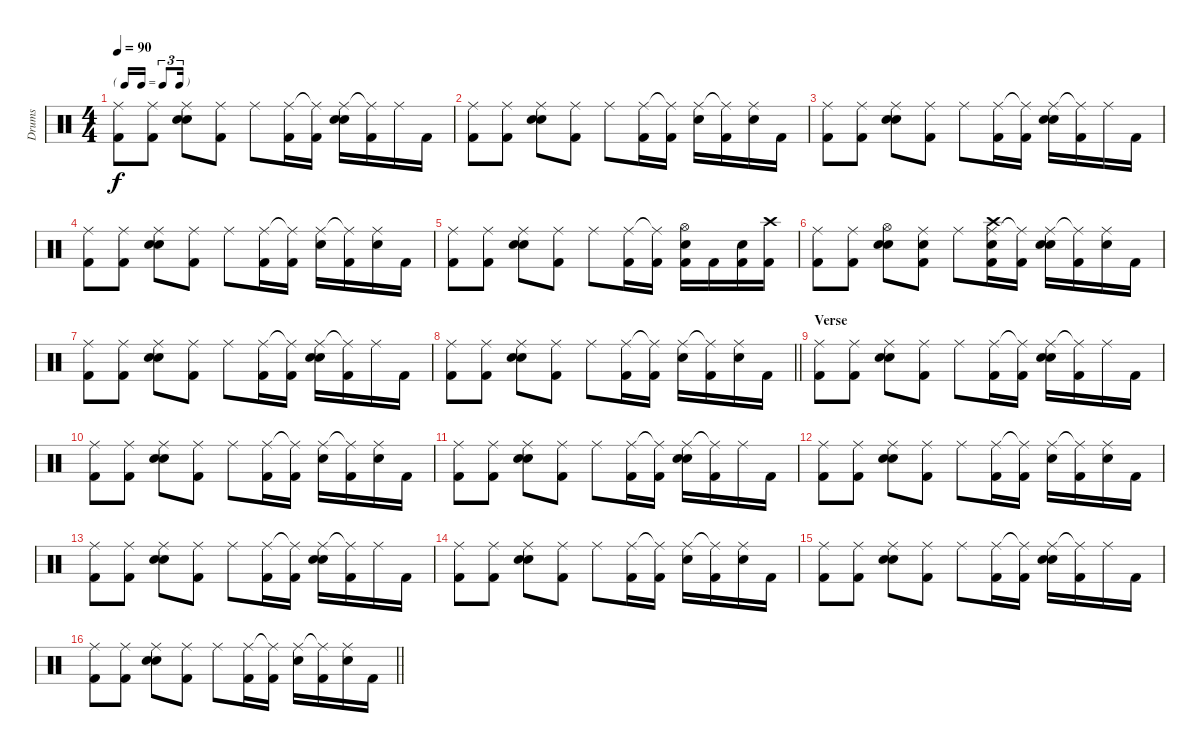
\track ("Drums" "Drums") {instrument percussion}
\staff {score}
\articulation defaults
\ts (4 4)
\tf triplet16th
\tempo 90
\clef neutral
\ks c
("Ride (middle)" "Kick (hit) 2").8{dy f} ("Ride (middle)" "Kick (hit) 2").8 ("Ride (middle)" "Hand Clap (hit)" "Snare (hit) 2").8 ("Ride (middle)" "Kick (hit) 2").8 "Ride (middle)".8 ("Ride (middle)" "Kick (hit) 2").16 ("Ride (middle)"{t} "Kick (hit) 2").16 ("Ride (middle)" "Hand Clap (hit)" "Snare (hit) 2").16 ("Ride (middle)"{t} "Kick (hit) 2").16 "Ride (middle)".16 "Kick (hit) 2".16 |
("Ride (middle)" "Kick (hit) 2").8 ("Ride (middle)" "Kick (hit) 2").8 ("Ride (middle)" "Hand Clap (hit)" "Snare (hit) 2").8 ("Ride (middle)" "Kick (hit) 2").8 "Ride (middle)".8 ("Ride (middle)" "Kick (hit) 2").16 ("Ride (middle)"{t} "Kick (hit) 2").16 ("Ride (middle)" "Hand Clap (hit)").16 ("Ride (middle)"{t} "Kick (hit) 2").16 ("Ride (middle)" "Snare (hit) 2").16 "Kick (hit) 2".16 |
("Ride (middle)" "Kick (hit) 2").8 ("Ride (middle)" "Kick (hit) 2").8 ("Ride (middle)" "Hand Clap (hit)" "Snare (hit) 2").8 ("Ride (middle)" "Kick (hit) 2").8 "Ride (middle)".8 ("Ride (middle)" "Kick (hit) 2").16 ("Ride (middle)"{t} "Kick (hit) 2").16 ("Ride (middle)" "Hand Clap (hit)" "Snare (hit) 2").16 ("Ride (middle)"{t} "Kick (hit) 2").16 "Ride (middle)".16 "Kick (hit) 2".16 |
("Ride (middle)" "Kick (hit) 2").8 ("Ride (middle)" "Kick (hit) 2").8 ("Ride (middle)" "Hand Clap (hit)" "Snare (hit) 2").8 ("Ride (middle)" "Kick (hit) 2").8 "Ride (middle)".8 ("Ride (middle)" "Kick (hit) 2").16 ("Ride (middle)"{t} "Kick (hit) 2").16 ("Ride (middle)" "Hand Clap (hit)").16 ("Ride (middle)"{t} "Kick (hit) 2").16 ("Ride (middle)" "Snare (hit) 2").16 "Kick (hit) 2".16 |
("Ride (middle)" "Kick (hit) 2").8 ("Ride (middle)" "Kick (hit) 2").8 ("Ride (middle)" "Hand Clap (hit)" "Snare (hit) 2").8 ("Ride (middle)" "Kick (hit) 2").8 "Ride (middle)".8 ("Ride (middle)" "Kick (hit) 2").16 ("Ride (middle)"{t} "Kick (hit) 2").16 ("Hi-Hat (open)" "Snare (hit) 2" "Kick (hit) 2").16 "Kick (hit) 2".16 ("Snare (hit) 2" "Kick (hit) 2").16 ("Crash high (hit)" "Kick (hit) 2").16 |
("Ride (middle)" "Kick (hit) 2").8 ("Ride (middle)" "Kick (hit) 2").8 ("Hi-Hat (open)" "Hand Clap (hit)" "Snare (hit) 2").8 ("Ride (middle)" "Snare (hit) 2" "Kick (hit) 2").8 "Ride (middle)".8 ("Ride (middle)" "Crash high (hit)" "Snare (hit) 2" "Kick (hit) 2").16 ("Ride (middle)"{t} "Kick (hit) 2").16 ("Ride (middle)" "Hand Clap (hit)" "Snare (hit) 2").16 ("Ride (middle)"{t} "Kick (hit) 2").16 ("Ride (middle)" "Snare (hit) 2").16 "Kick (hit) 2".16 |
("Ride (middle)" "Kick (hit) 2").8 ("Ride (middle)" "Kick (hit) 2").8 ("Ride (middle)" "Hand Clap (hit)" "Snare (hit) 2").8 ("Ride (middle)" "Kick (hit) 2").8 "Ride (middle)".8 ("Ride (middle)" "Kick (hit) 2").16 ("Ride (middle)"{t} "Kick (hit) 2").16 ("Ride (middle)" "Hand Clap (hit)" "Snare (hit) 2").16 ("Ride (middle)"{t} "Kick (hit) 2").16 "Ride (middle)".16 "Kick (hit) 2".16 |
\barLineRight lightlight
("Ride (middle)" "Kick (hit) 2").8 ("Ride (middle)" "Kick (hit) 2").8 ("Ride (middle)" "Hand Clap (hit)" "Snare (hit) 2").8 ("Ride (middle)" "Kick (hit) 2").8 "Ride (middle)".8 ("Ride (middle)" "Kick (hit) 2").16 ("Ride (middle)"{t} "Kick (hit) 2").16 ("Ride (middle)" "Hand Clap (hit)").16 ("Ride (middle)"{t} "Kick (hit) 2").16 ("Ride (middle)" "Snare (hit) 2").16 "Kick (hit) 2".16 |
\section ("" "Verse")
("Ride (middle)" "Kick (hit) 2").8 ("Ride (middle)" "Kick (hit) 2").8 ("Ride (middle)" "Hand Clap (hit)" "Snare (hit) 2").8 ("Ride (middle)" "Kick (hit) 2").8 "Ride (middle)".8 ("Ride (middle)" "Kick (hit) 2").16 ("Ride (middle)"{t} "Kick (hit) 2").16 ("Ride (middle)" "Hand Clap (hit)" "Snare (hit) 2").16 ("Ride (middle)"{t} "Kick (hit) 2").16 "Ride (middle)".16 "Kick (hit) 2".16 |
("Ride (middle)" "Kick (hit) 2").8 ("Ride (middle)" "Kick (hit) 2").8 ("Ride (middle)" "Hand Clap (hit)" "Snare (hit) 2").8 ("Ride (middle)" "Kick (hit) 2").8 "Ride (middle)".8 ("Ride (middle)" "Kick (hit) 2").16 ("Ride (middle)"{t} "Kick (hit) 2").16 ("Ride (middle)" "Hand Clap (hit)").16 ("Ride (middle)"{t} "Kick (hit) 2").16 ("Ride (middle)" "Snare (hit) 2").16 "Kick (hit) 2".16 |
("Ride (middle)" "Kick (hit) 2").8 ("Ride (middle)" "Kick (hit) 2").8 ("Ride (middle)" "Hand Clap (hit)" "Snare (hit) 2").8 ("Ride (middle)" "Kick (hit) 2").8 "Ride (middle)".8 ("Ride (middle)" "Kick (hit) 2").16 ("Ride (middle)"{t} "Kick (hit) 2").16 ("Ride (middle)" "Hand Clap (hit)" "Snare (hit) 2").16 ("Ride (middle)"{t} "Kick (hit) 2").16 "Ride (middle)".16 "Kick (hit) 2".16 |
("Ride (middle)" "Kick (hit) 2").8 ("Ride (middle)" "Kick (hit) 2").8 ("Ride (middle)" "Hand Clap (hit)" "Snare (hit) 2").8 ("Ride (middle)" "Kick (hit) 2").8 "Ride (middle)".8 ("Ride (middle)" "Kick (hit) 2").16 ("Ride (middle)"{t} "Kick (hit) 2").16 ("Ride (middle)" "Hand Clap (hit)").16 ("Ride (middle)"{t} "Kick (hit) 2").16 ("Ride (middle)" "Snare (hit) 2").16 "Kick (hit) 2".16 |
("Ride (middle)" "Kick (hit) 2").8 ("Ride (middle)" "Kick (hit) 2").8 ("Ride (middle)" "Hand Clap (hit)" "Snare (hit) 2").8 ("Ride (middle)" "Kick (hit) 2").8 "Ride (middle)".8 ("Ride (middle)" "Kick (hit) 2").16 ("Ride (middle)"{t} "Kick (hit) 2").16 ("Ride (middle)" "Hand Clap (hit)" "Snare (hit) 2").16 ("Ride (middle)"{t} "Kick (hit) 2").16 "Ride (middle)".16 "Kick (hit) 2".16 |
("Ride (middle)" "Kick (hit) 2").8 ("Ride (middle)" "Kick (hit) 2").8 ("Ride (middle)" "Hand Clap (hit)" "Snare (hit) 2").8 ("Ride (middle)" "Kick (hit) 2").8 "Ride (middle)".8 ("Ride (middle)" "Kick (hit) 2").16 ("Ride (middle)"{t} "Kick (hit) 2").16 ("Ride (middle)" "Hand Clap (hit)").16 ("Ride (middle)"{t} "Kick (hit) 2").16 ("Ride (middle)" "Snare (hit) 2").16 "Kick (hit) 2".16 |
("Ride (middle)" "Kick (hit) 2").8 ("Ride (middle)" "Kick (hit) 2").8 ("Ride (middle)" "Hand Clap (hit)" "Snare (hit) 2").8 ("Ride (middle)" "Kick (hit) 2").8 "Ride (middle)".8 ("Ride (middle)" "Kick (hit) 2").16 ("Ride (middle)"{t} "Kick (hit) 2").16 ("Ride (middle)" "Hand Clap (hit)" "Snare (hit) 2").16 ("Ride (middle)"{t} "Kick (hit) 2").16 "Ride (middle)".16 "Kick (hit) 2".16 |
\barLineRight lightlight
("Ride (middle)" "Kick (hit) 2").8 ("Ride (middle)" "Kick (hit) 2").8 ("Ride (middle)" "Hand Clap (hit)" "Snare (hit) 2").8 ("Ride (middle)" "Kick (hit) 2").8 "Ride (middle)".8 ("Ride (middle)" "Kick (hit) 2").16 ("Ride (middle)"{t} "Kick (hit) 2").16 ("Ride (middle)" "Hand Clap (hit)").16 ("Ride (middle)"{t} "Kick (hit) 2").16 ("Ride (middle)" "Snare (hit) 2").16 "Kick (hit) 2".16
